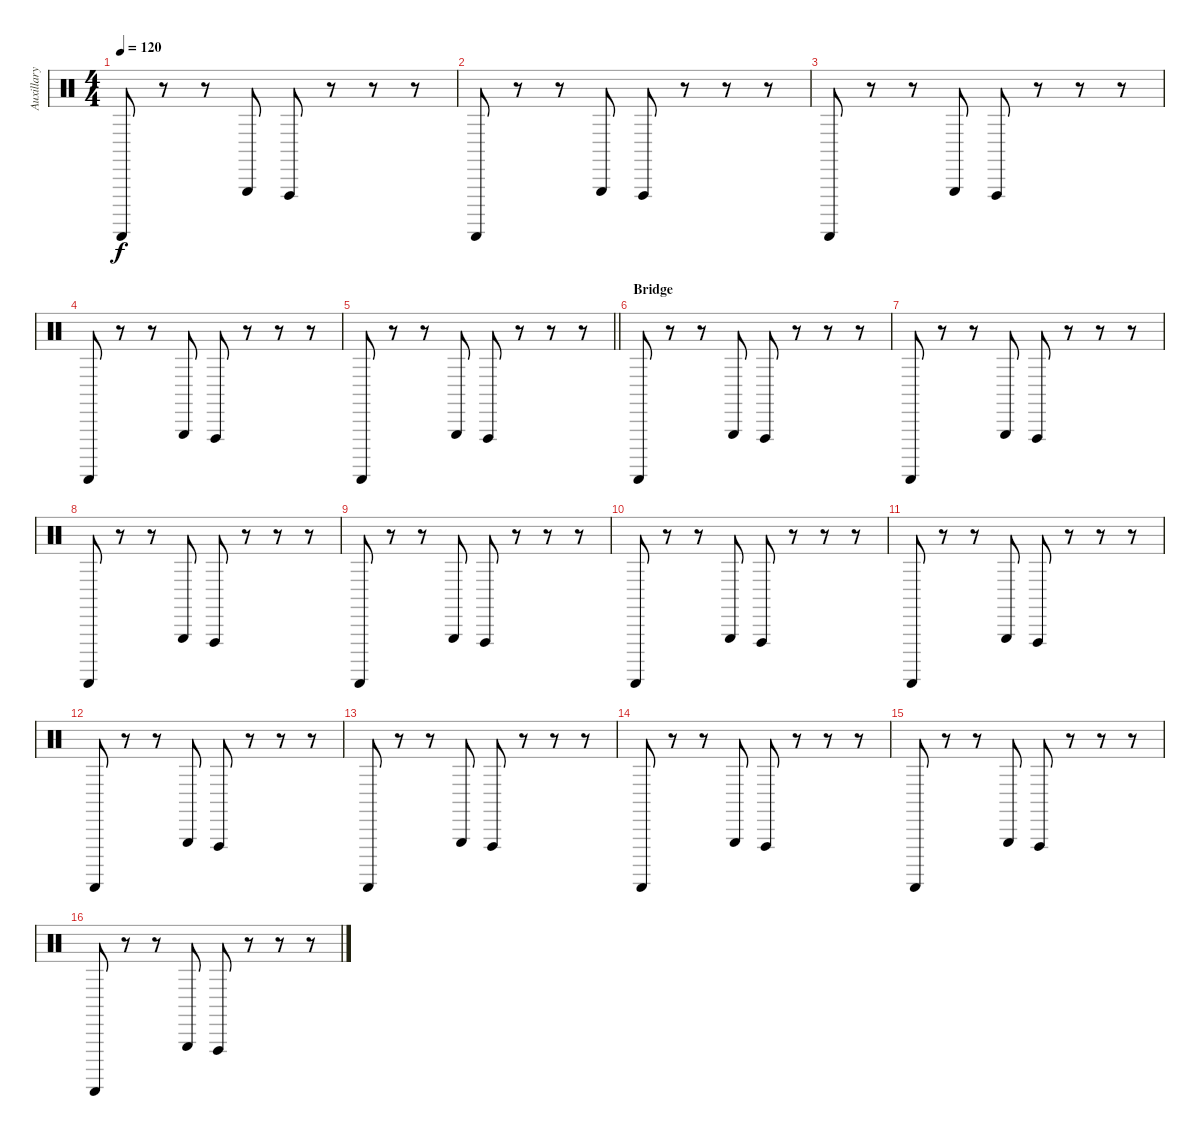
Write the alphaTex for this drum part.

\track ("Auxillary 2" "Auxillary ") {instrument percussion}
\staff {score}
\articulation defaults
\ts (4 4)
\tempo 120
\clef neutral
\ks c "Guiro (scrap-return)".8{dy f}
r.8 r.8 "Triangle (hit)".8 "Vibraslap (hit)".8 r.8 r.8 r.8 |
"Guiro (scrap-return)".8 r.8 r.8 "Triangle (hit)".8 "Vibraslap (hit)".8 r.8 r.8 r.8 |
"Guiro (scrap-return)".8 r.8 r.8 "Triangle (hit)".8 "Vibraslap (hit)".8 r.8 r.8 r.8 |
"Guiro (scrap-return)".8 r.8 r.8 "Triangle (hit)".8 "Vibraslap (hit)".8 r.8 r.8 r.8 |
\barLineRight lightlight "Guiro (scrap-return)".8
r.8 r.8 "Triangle (hit)".8 "Vibraslap (hit)".8 r.8 r.8 r.8 |
\section ("" "Bridge")
"Guiro (scrap-return)".8 r.8 r.8 "Triangle (hit)".8 "Vibraslap (hit)".8 r.8 r.8 r.8 |
"Guiro (scrap-return)".8 r.8 r.8 "Triangle (hit)".8 "Vibraslap (hit)".8 r.8 r.8 r.8 |
"Guiro (scrap-return)".8 r.8 r.8 "Triangle (hit)".8 "Vibraslap (hit)".8 r.8 r.8 r.8 |
"Guiro (scrap-return)".8 r.8 r.8 "Triangle (hit)".8 "Vibraslap (hit)".8 r.8 r.8 r.8 |
"Guiro (scrap-return)".8 r.8 r.8 "Triangle (hit)".8 "Vibraslap (hit)".8 r.8 r.8 r.8 |
"Guiro (scrap-return)".8 r.8 r.8 "Triangle (hit)".8 "Vibraslap (hit)".8 r.8 r.8 r.8 |
"Guiro (scrap-return)".8 r.8 r.8 "Triangle (hit)".8 "Vibraslap (hit)".8 r.8 r.8 r.8 |
"Guiro (scrap-return)".8 r.8 r.8 "Triangle (hit)".8 "Vibraslap (hit)".8 r.8 r.8 r.8 |
"Guiro (scrap-return)".8 r.8 r.8 "Triangle (hit)".8 "Vibraslap (hit)".8 r.8 r.8 r.8 |
"Guiro (scrap-return)".8 r.8 r.8 "Triangle (hit)".8 "Vibraslap (hit)".8 r.8 r.8 r.8 |
"Guiro (scrap-return)".8 r.8 r.8 "Triangle (hit)".8 "Vibraslap (hit)".8 r.8 r.8 r.8
